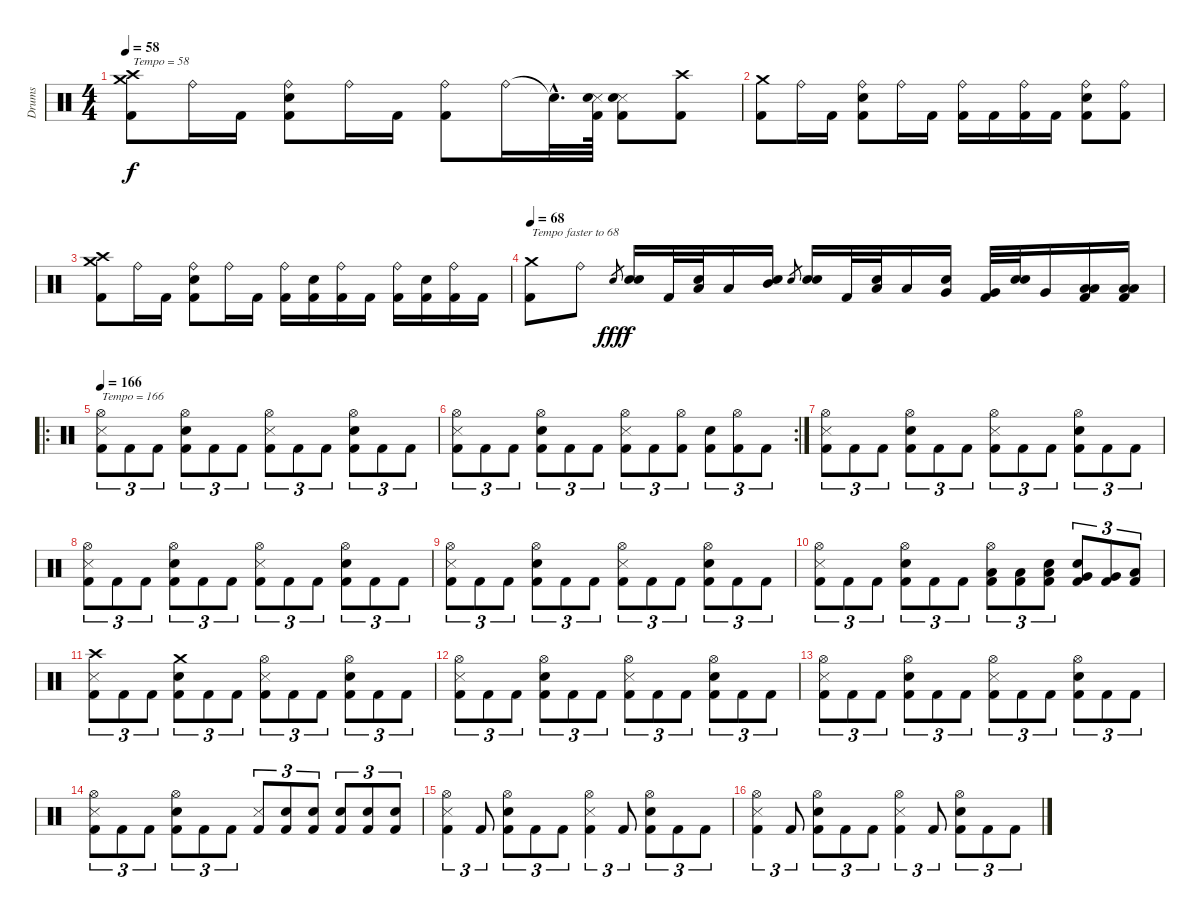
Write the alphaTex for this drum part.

\track ("Drums" "Drums") {instrument percussion}
\staff {score}
\articulation defaults
\ts (4 4)
\tempo 58
\clef neutral
\ks c
("Crash medium (hit)" "Crash high (hit)" "Kick (hit) 2").8{txt "Tempo = 58" dy f} "Ride (bell)".16 "Kick (hit) 2".16 ("Ride (bell)" "Electric Snare (hit)" "Kick (hit) 2").8 "Ride (bell)".16 "Kick (hit) 2".16 ("Ride (bell)" "Kick (hit) 2").8 "Ride (bell)".16 "Snare (hit)"{hac t}.32{d} ("Snare (side stick) 3" "Electric Snare (hit)" "Kick (hit) 2").64 ("Snare (side stick) 3" "Electric Snare (hit)" "Kick (hit) 2").8 ("Crash high (hit)" "Kick (hit) 2").8 |
("Crash medium (hit)" "Kick (hit) 2").8 "Ride (bell)".16 "Kick (hit) 2".16 ("Ride (bell)" "Electric Snare (hit)" "Kick (hit) 2").8 "Ride (bell)".16 "Kick (hit) 2".16 ("Ride (bell)" "Kick (hit) 2").16 "Kick (hit) 2".16 ("Ride (bell)" "Kick (hit) 2").16 "Kick (hit) 2".16 ("Ride (bell)" "Electric Snare (hit)" "Kick (hit) 2").8 ("Ride (bell)" "Kick (hit) 2").8 |
("Crash medium (hit)" "Crash high (hit)" "Kick (hit) 2").8 "Ride (bell)".16 "Kick (hit) 2".16 ("Ride (bell)" "Electric Snare (hit)" "Kick (hit) 2").8 "Ride (bell)".16 "Kick (hit) 2".16 ("Ride (bell)" "Kick (hit) 2").16 ("Electric Snare (hit)" "Kick (hit) 2").16 ("Ride (bell)" "Kick (hit) 2").16 "Kick (hit) 2".16 ("Ride (bell)" "Kick (hit) 2").16 ("Electric Snare (hit)" "Kick (hit) 2").16 ("Ride (bell)" "Kick (hit) 2").16 "Kick (hit) 2".16 |
\tempo 68
("Crash medium (hit)" "Kick (hit) 2").8{txt "Tempo faster to 68"} "Ride (bell)".8 "Electric Snare (hit)".8{gr dy fff} ("Electric Snare (hit)" "Electric Snare (hit)").16{dy f} "Kick (hit) 2".32 ("Low Tom (hit)" "Electric Snare (hit)").32 "Low Tom (hit)".16 ("Mid Tom (hit)" "Electric Snare (hit)").16 "Electric Snare (hit)".8{gr} ("Electric Snare (hit)" "Electric Snare (hit)").16 "Kick (hit) 2".32 ("Low Tom (hit)" "Electric Snare (hit)").32 "Low Tom (hit)".16 ("Very Low Tom (hit)" "Electric Snare (hit)").16 ("Very Low Tom (hit)" "Kick (hit) 2").32 ("Electric Snare (hit)" "Electric Snare (hit)").32 "Very Low Tom (hit)".16 ("Low Floor Tom (hit)" "Low Floor Tom (hit)" "Kick (hit) 2").16 ("Low Floor Tom (hit)" "Low Floor Tom (hit)" "Kick (hit) 2").16 |
\ro
\tempo 166
("Hi-Hat (open)" "Snare (side stick) 3" "Kick (hit) 2").8{tu (3 2) txt "Tempo = 166"} "Kick (hit) 2".8{tu (3 2)} "Kick (hit) 2".8{tu (3 2)} ("Hi-Hat (open)" "Electric Snare (hit)" "Kick (hit) 2").8{tu (3 2)} "Kick (hit) 2".8{tu (3 2)} "Kick (hit) 2".8{tu (3 2)} ("Hi-Hat (open)" "Snare (side stick) 3" "Kick (hit) 2").8{tu (3 2)} "Kick (hit) 2".8{tu (3 2)} "Kick (hit) 2".8{tu (3 2)} ("Hi-Hat (open)" "Electric Snare (hit)" "Kick (hit) 2").8{tu (3 2)} "Kick (hit) 2".8{tu (3 2)} "Kick (hit) 2".8{tu (3 2)} |
\rc 2
("Hi-Hat (open)" "Snare (side stick) 3" "Kick (hit) 2").8{tu (3 2)} "Kick (hit) 2".8{tu (3 2)} "Kick (hit) 2".8{tu (3 2)} ("Hi-Hat (open)" "Electric Snare (hit)" "Kick (hit) 2").8{tu (3 2)} "Kick (hit) 2".8{tu (3 2)} "Kick (hit) 2".8{tu (3 2)} ("Hi-Hat (open)" "Snare (side stick) 3" "Kick (hit) 2").8{tu (3 2)} "Kick (hit) 2".8{tu (3 2)} ("Hi-Hat (open)" "Kick (hit) 2").8{tu (3 2)} ("Electric Snare (hit)" "Kick (hit) 2").8{tu (3 2)} ("Hi-Hat (open)" "Kick (hit) 2").8{tu (3 2)} "Kick (hit) 2".8{tu (3 2)} |
("Hi-Hat (open)" "Snare (side stick) 3" "Kick (hit) 2").8{tu (3 2)} "Kick (hit) 2".8{tu (3 2)} "Kick (hit) 2".8{tu (3 2)} ("Hi-Hat (open)" "Electric Snare (hit)" "Kick (hit) 2").8{tu (3 2)} "Kick (hit) 2".8{tu (3 2)} "Kick (hit) 2".8{tu (3 2)} ("Hi-Hat (open)" "Snare (side stick) 3" "Kick (hit) 2").8{tu (3 2)} "Kick (hit) 2".8{tu (3 2)} "Kick (hit) 2".8{tu (3 2)} ("Hi-Hat (open)" "Electric Snare (hit)" "Kick (hit) 2").8{tu (3 2)} "Kick (hit) 2".8{tu (3 2)} "Kick (hit) 2".8{tu (3 2)} |
("Hi-Hat (open)" "Snare (side stick) 3" "Kick (hit) 2").8{tu (3 2)} "Kick (hit) 2".8{tu (3 2)} "Kick (hit) 2".8{tu (3 2)} ("Hi-Hat (open)" "Electric Snare (hit)" "Kick (hit) 2").8{tu (3 2)} "Kick (hit) 2".8{tu (3 2)} "Kick (hit) 2".8{tu (3 2)} ("Hi-Hat (open)" "Snare (side stick) 3" "Kick (hit) 2").8{tu (3 2)} "Kick (hit) 2".8{tu (3 2)} "Kick (hit) 2".8{tu (3 2)} ("Hi-Hat (open)" "Electric Snare (hit)" "Kick (hit) 2").8{tu (3 2)} "Kick (hit) 2".8{tu (3 2)} "Kick (hit) 2".8{tu (3 2)} |
("Hi-Hat (open)" "Snare (side stick) 3" "Kick (hit) 2").8{tu (3 2)} "Kick (hit) 2".8{tu (3 2)} "Kick (hit) 2".8{tu (3 2)} ("Hi-Hat (open)" "Electric Snare (hit)" "Kick (hit) 2").8{tu (3 2)} "Kick (hit) 2".8{tu (3 2)} "Kick (hit) 2".8{tu (3 2)} ("Hi-Hat (open)" "Snare (side stick) 3" "Kick (hit) 2").8{tu (3 2)} "Kick (hit) 2".8{tu (3 2)} "Kick (hit) 2".8{tu (3 2)} ("Hi-Hat (open)" "Electric Snare (hit)" "Kick (hit) 2").8{tu (3 2)} "Kick (hit) 2".8{tu (3 2)} "Kick (hit) 2".8{tu (3 2)} |
("Hi-Hat (open)" "Snare (side stick) 3" "Kick (hit) 2").8{tu (3 2)} "Kick (hit) 2".8{tu (3 2)} "Kick (hit) 2".8{tu (3 2)} ("Hi-Hat (open)" "Electric Snare (hit)" "Kick (hit) 2").8{tu (3 2)} "Kick (hit) 2".8{tu (3 2)} "Kick (hit) 2".8{tu (3 2)} ("Hi-Hat (open)" "Low Floor Tom (hit)" "Kick (hit) 2").8{tu (3 2)} ("Low Floor Tom (hit)" "Kick (hit) 2").8{tu (3 2)} ("Electric Snare (hit)" "Low Floor Tom (hit)" "Kick (hit) 2").8{tu (3 2)} ("Electric Snare (hit)" "Very Low Tom (hit)" "Kick (hit) 2").8{tu (3 2)} ("Very Low Tom (hit)" "Kick (hit) 2").8{tu (3 2)} ("Low Tom (hit)" "Kick (hit) 2").8{tu (3 2)} |
("Crash high (hit)" "Snare (side stick) 3" "Kick (hit) 2").8{tu (3 2)} "Kick (hit) 2".8{tu (3 2)} "Kick (hit) 2".8{tu (3 2)} ("Crash medium (hit)" "Electric Snare (hit)" "Kick (hit) 2").8{tu (3 2)} "Kick (hit) 2".8{tu (3 2)} "Kick (hit) 2".8{tu (3 2)} ("Hi-Hat (open)" "Snare (side stick) 3" "Kick (hit) 2").8{tu (3 2)} "Kick (hit) 2".8{tu (3 2)} "Kick (hit) 2".8{tu (3 2)} ("Hi-Hat (open)" "Electric Snare (hit)" "Kick (hit) 2").8{tu (3 2)} "Kick (hit) 2".8{tu (3 2)} "Kick (hit) 2".8{tu (3 2)} |
("Hi-Hat (open)" "Snare (side stick) 3" "Kick (hit) 2").8{tu (3 2)} "Kick (hit) 2".8{tu (3 2)} "Kick (hit) 2".8{tu (3 2)} ("Hi-Hat (open)" "Electric Snare (hit)" "Kick (hit) 2").8{tu (3 2)} "Kick (hit) 2".8{tu (3 2)} "Kick (hit) 2".8{tu (3 2)} ("Hi-Hat (open)" "Snare (side stick) 3" "Kick (hit) 2").8{tu (3 2)} "Kick (hit) 2".8{tu (3 2)} "Kick (hit) 2".8{tu (3 2)} ("Hi-Hat (open)" "Electric Snare (hit)" "Kick (hit) 2").8{tu (3 2)} "Kick (hit) 2".8{tu (3 2)} "Kick (hit) 2".8{tu (3 2)} |
("Hi-Hat (open)" "Snare (side stick) 3" "Kick (hit) 2").8{tu (3 2)} "Kick (hit) 2".8{tu (3 2)} "Kick (hit) 2".8{tu (3 2)} ("Hi-Hat (open)" "Electric Snare (hit)" "Kick (hit) 2").8{tu (3 2)} "Kick (hit) 2".8{tu (3 2)} "Kick (hit) 2".8{tu (3 2)} ("Hi-Hat (open)" "Snare (side stick) 3" "Kick (hit) 2").8{tu (3 2)} "Kick (hit) 2".8{tu (3 2)} "Kick (hit) 2".8{tu (3 2)} ("Hi-Hat (open)" "Electric Snare (hit)" "Kick (hit) 2").8{tu (3 2)} "Kick (hit) 2".8{tu (3 2)} "Kick (hit) 2".8{tu (3 2)} |
("Hi-Hat (open)" "Snare (side stick) 3" "Kick (hit) 2").8{tu (3 2)} "Kick (hit) 2".8{tu (3 2)} "Kick (hit) 2".8{tu (3 2)} ("Hi-Hat (open)" "Electric Snare (hit)" "Kick (hit) 2").8{tu (3 2)} "Kick (hit) 2".8{tu (3 2)} "Kick (hit) 2".8{tu (3 2)} ("Snare (side stick) 3" "Kick (hit) 2").8{tu (3 2)} ("Electric Snare (hit)" "Kick (hit) 2").8{tu (3 2)} ("Electric Snare (hit)" "Kick (hit) 2").8{tu (3 2)} ("Electric Snare (hit)" "Kick (hit) 2").8{tu (3 2)} ("Electric Snare (hit)" "Kick (hit) 2").8{tu (3 2)} ("Electric Snare (hit)" "Kick (hit) 2").8{tu (3 2)} |
("Hi-Hat (open)" "Snare (side stick) 3" "Kick (hit) 2").4{tu (3 2)} "Kick (hit) 2".8{tu (3 2)} ("Hi-Hat (open)" "Electric Snare (hit)" "Kick (hit) 2").8{tu (3 2)} "Kick (hit) 2".8{tu (3 2)} "Kick (hit) 2".8{tu (3 2)} ("Hi-Hat (open)" "Snare (side stick) 3" "Kick (hit) 2").4{tu (3 2)} "Kick (hit) 2".8{tu (3 2)} ("Hi-Hat (open)" "Electric Snare (hit)" "Kick (hit) 2").8{tu (3 2)} "Kick (hit) 2".8{tu (3 2)} "Kick (hit) 2".8{tu (3 2)} |
("Hi-Hat (open)" "Snare (side stick) 3" "Kick (hit) 2").4{tu (3 2)} "Kick (hit) 2".8{tu (3 2)} ("Hi-Hat (open)" "Electric Snare (hit)" "Kick (hit) 2").8{tu (3 2)} "Kick (hit) 2".8{tu (3 2)} "Kick (hit) 2".8{tu (3 2)} ("Hi-Hat (open)" "Snare (side stick) 3" "Kick (hit) 2").4{tu (3 2)} "Kick (hit) 2".8{tu (3 2)} ("Hi-Hat (open)" "Electric Snare (hit)" "Kick (hit) 2").8{tu (3 2)} "Kick (hit) 2".8{tu (3 2)} "Kick (hit) 2".8{tu (3 2)}
